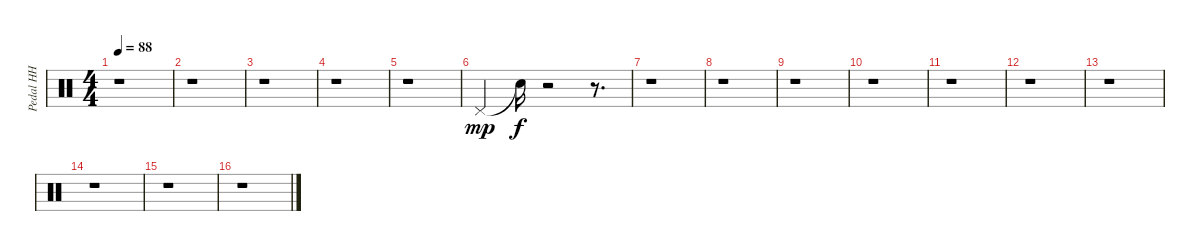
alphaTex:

\track ("Pedal HH" "Pedal HH") {instrument percussion}
\staff {score}
\articulation defaults
\ts (4 4)
\tempo 88
\clef neutral
\ks c
r.1{dy mp} |
r.1 |
r.1 |
r.1 |
r.1 |
"Pedal Hi-Hat (hit)".4 "Snare (hit)"{t}.16{dy f} r.2 r.8{d} |
r.1 |
r.1 |
r.1 |
r.1 |
r.1 |
r.1 |
r.1 |
r.1 |
r.1 |
r.1
